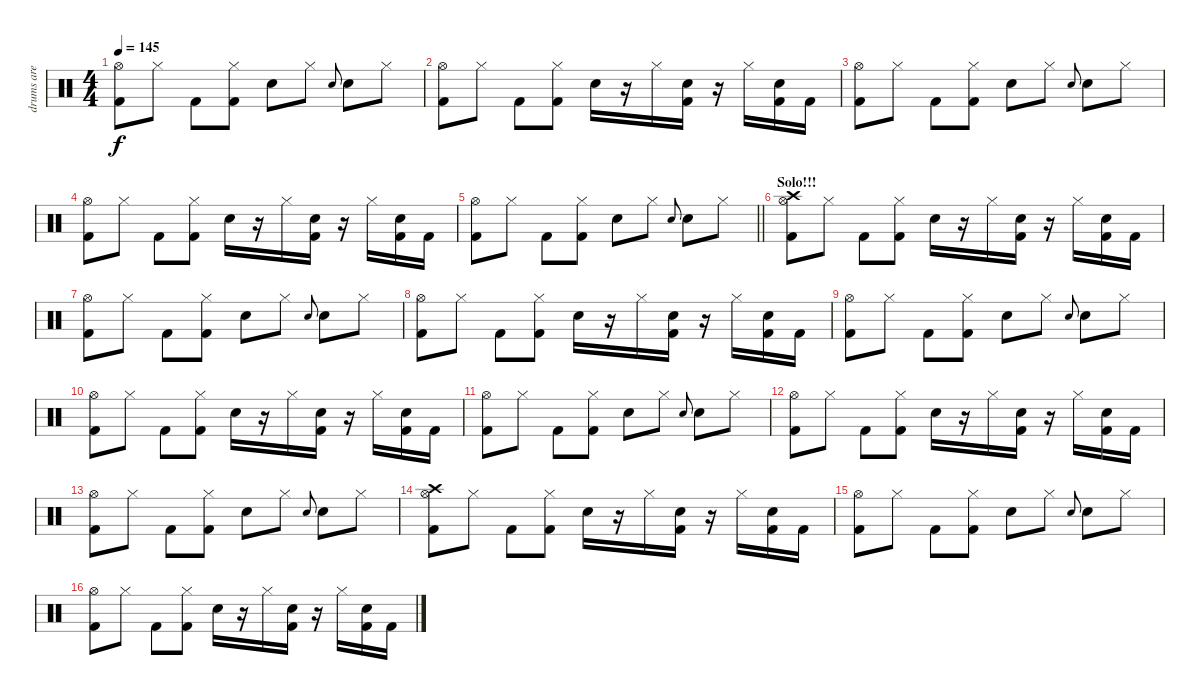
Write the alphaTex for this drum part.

\track ("drums are cool   >.<" "drums are ") {instrument percussion}
\staff {score}
\articulation defaults
\ts (4 4)
\tempo 145
\clef neutral
\ks c
("Hi-Hat (open)" "Kick (hit) 2").8{dy f} "Hi-Hat (closed)".8 "Kick (hit) 2".8 ("Hi-Hat (closed)" "Kick (hit) 2").8 "Snare (hit) 2".8 "Hi-Hat (closed)".8 "Snare (hit) 2".8{gr onbeat} "Snare (hit) 2".8 "Hi-Hat (closed)".8 |
("Hi-Hat (open)" "Kick (hit) 2").8 "Hi-Hat (closed)".8 "Kick (hit) 2".8 ("Hi-Hat (closed)" "Kick (hit) 2").8 "Snare (hit) 2".16 r.16 "Hi-Hat (closed)".16 ("Snare (hit) 2" "Kick (hit) 2").16 r.16 "Hi-Hat (closed)".16 ("Snare (hit) 2" "Kick (hit) 2").16 "Kick (hit) 2".16 |
("Hi-Hat (open)" "Kick (hit) 2").8 "Hi-Hat (closed)".8 "Kick (hit) 2".8 ("Hi-Hat (closed)" "Kick (hit) 2").8 "Snare (hit) 2".8 "Hi-Hat (closed)".8 "Snare (hit) 2".8{gr onbeat} "Snare (hit) 2".8 "Hi-Hat (closed)".8 |
("Hi-Hat (open)" "Kick (hit) 2").8 "Hi-Hat (closed)".8 "Kick (hit) 2".8 ("Hi-Hat (closed)" "Kick (hit) 2").8 "Snare (hit) 2".16 r.16 "Hi-Hat (closed)".16 ("Snare (hit) 2" "Kick (hit) 2").16 r.16 "Hi-Hat (closed)".16 ("Snare (hit) 2" "Kick (hit) 2").16 "Kick (hit) 2".16 |
\barLineRight lightlight
("Hi-Hat (open)" "Kick (hit) 2").8 "Hi-Hat (closed)".8 "Kick (hit) 2".8 ("Hi-Hat (closed)" "Kick (hit) 2").8 "Snare (hit) 2".8 "Hi-Hat (closed)".8 "Snare (hit) 2".8{gr onbeat} "Snare (hit) 2".8 "Hi-Hat (closed)".8 |
\section ("" "Solo!!!")
("Crash high (hit)" "Hi-Hat (open)" "Kick (hit) 2").8 "Hi-Hat (closed)".8 "Kick (hit) 2".8 ("Hi-Hat (closed)" "Kick (hit) 2").8 "Snare (hit) 2".16 r.16 "Hi-Hat (closed)".16 ("Snare (hit) 2" "Kick (hit) 2").16 r.16 "Hi-Hat (closed)".16 ("Snare (hit) 2" "Kick (hit) 2").16 "Kick (hit) 2".16 |
("Hi-Hat (open)" "Kick (hit) 2").8 "Hi-Hat (closed)".8 "Kick (hit) 2".8 ("Hi-Hat (closed)" "Kick (hit) 2").8 "Snare (hit) 2".8 "Hi-Hat (closed)".8 "Snare (hit) 2".8{gr onbeat} "Snare (hit) 2".8 "Hi-Hat (closed)".8 |
("Hi-Hat (open)" "Kick (hit) 2").8 "Hi-Hat (closed)".8 "Kick (hit) 2".8 ("Hi-Hat (closed)" "Kick (hit) 2").8 "Snare (hit) 2".16 r.16 "Hi-Hat (closed)".16 ("Snare (hit) 2" "Kick (hit) 2").16 r.16 "Hi-Hat (closed)".16 ("Snare (hit) 2" "Kick (hit) 2").16 "Kick (hit) 2".16 |
("Hi-Hat (open)" "Kick (hit) 2").8 "Hi-Hat (closed)".8 "Kick (hit) 2".8 ("Hi-Hat (closed)" "Kick (hit) 2").8 "Snare (hit) 2".8 "Hi-Hat (closed)".8 "Snare (hit) 2".8{gr onbeat} "Snare (hit) 2".8 "Hi-Hat (closed)".8 |
("Hi-Hat (open)" "Kick (hit) 2").8 "Hi-Hat (closed)".8 "Kick (hit) 2".8 ("Hi-Hat (closed)" "Kick (hit) 2").8 "Snare (hit) 2".16 r.16 "Hi-Hat (closed)".16 ("Snare (hit) 2" "Kick (hit) 2").16 r.16 "Hi-Hat (closed)".16 ("Snare (hit) 2" "Kick (hit) 2").16 "Kick (hit) 2".16 |
("Hi-Hat (open)" "Kick (hit) 2").8 "Hi-Hat (closed)".8 "Kick (hit) 2".8 ("Hi-Hat (closed)" "Kick (hit) 2").8 "Snare (hit) 2".8 "Hi-Hat (closed)".8 "Snare (hit) 2".8{gr onbeat} "Snare (hit) 2".8 "Hi-Hat (closed)".8 |
("Hi-Hat (open)" "Kick (hit) 2").8 "Hi-Hat (closed)".8 "Kick (hit) 2".8 ("Hi-Hat (closed)" "Kick (hit) 2").8 "Snare (hit) 2".16 r.16 "Hi-Hat (closed)".16 ("Snare (hit) 2" "Kick (hit) 2").16 r.16 "Hi-Hat (closed)".16 ("Snare (hit) 2" "Kick (hit) 2").16 "Kick (hit) 2".16 |
("Hi-Hat (open)" "Kick (hit) 2").8 "Hi-Hat (closed)".8 "Kick (hit) 2".8 ("Hi-Hat (closed)" "Kick (hit) 2").8 "Snare (hit) 2".8 "Hi-Hat (closed)".8 "Snare (hit) 2".8{gr onbeat} "Snare (hit) 2".8 "Hi-Hat (closed)".8 |
("Crash high (hit)" "Hi-Hat (open)" "Kick (hit) 2").8 "Hi-Hat (closed)".8 "Kick (hit) 2".8 ("Hi-Hat (closed)" "Kick (hit) 2").8 "Snare (hit) 2".16 r.16 "Hi-Hat (closed)".16 ("Snare (hit) 2" "Kick (hit) 2").16 r.16 "Hi-Hat (closed)".16 ("Snare (hit) 2" "Kick (hit) 2").16 "Kick (hit) 2".16 |
("Hi-Hat (open)" "Kick (hit) 2").8 "Hi-Hat (closed)".8 "Kick (hit) 2".8 ("Hi-Hat (closed)" "Kick (hit) 2").8 "Snare (hit) 2".8 "Hi-Hat (closed)".8 "Snare (hit) 2".8{gr onbeat} "Snare (hit) 2".8 "Hi-Hat (closed)".8 |
("Hi-Hat (open)" "Kick (hit) 2").8 "Hi-Hat (closed)".8 "Kick (hit) 2".8 ("Hi-Hat (closed)" "Kick (hit) 2").8 "Snare (hit) 2".16 r.16 "Hi-Hat (closed)".16 ("Snare (hit) 2" "Kick (hit) 2").16 r.16 "Hi-Hat (closed)".16 ("Snare (hit) 2" "Kick (hit) 2").16 "Kick (hit) 2".16
